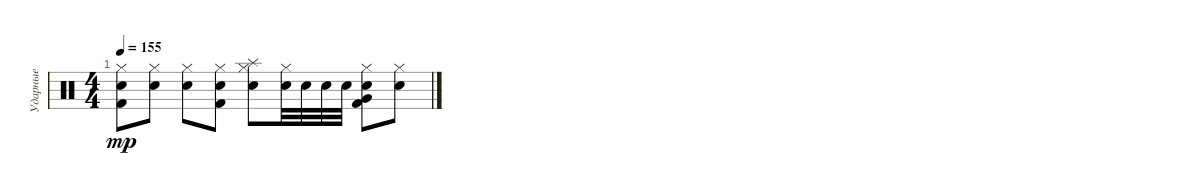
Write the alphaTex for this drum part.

\track ("Ударные" "Ударные") {instrument percussion}
\staff {score}
\articulation defaults
\ts (4 4)
\tempo 155
\clef neutral
\ks c
("Hi-Hat (closed)" "Electric Snare (hit)" "Kick (hit) 2").8{dy mp} ("Hi-Hat (closed)" "Electric Snare (hit)").8 ("Hi-Hat (closed)" "Electric Snare (hit)").8 ("Hi-Hat (closed)" "Electric Snare (hit)" "Kick (hit) 2").8 ("Hi-Hat (closed)" "Splash (hit)" "Electric Snare (hit)").8 ("Hi-Hat (closed)" "Electric Snare (hit)").32 "Electric Snare (hit)".32 "Electric Snare (hit)".32 "Electric Snare (hit)".32 ("Hi-Hat (closed)" "Electric Snare (hit)" "Very Low Tom (hit)" "Kick (hit) 2").8 ("Hi-Hat (closed)" "Electric Snare (hit)").8
